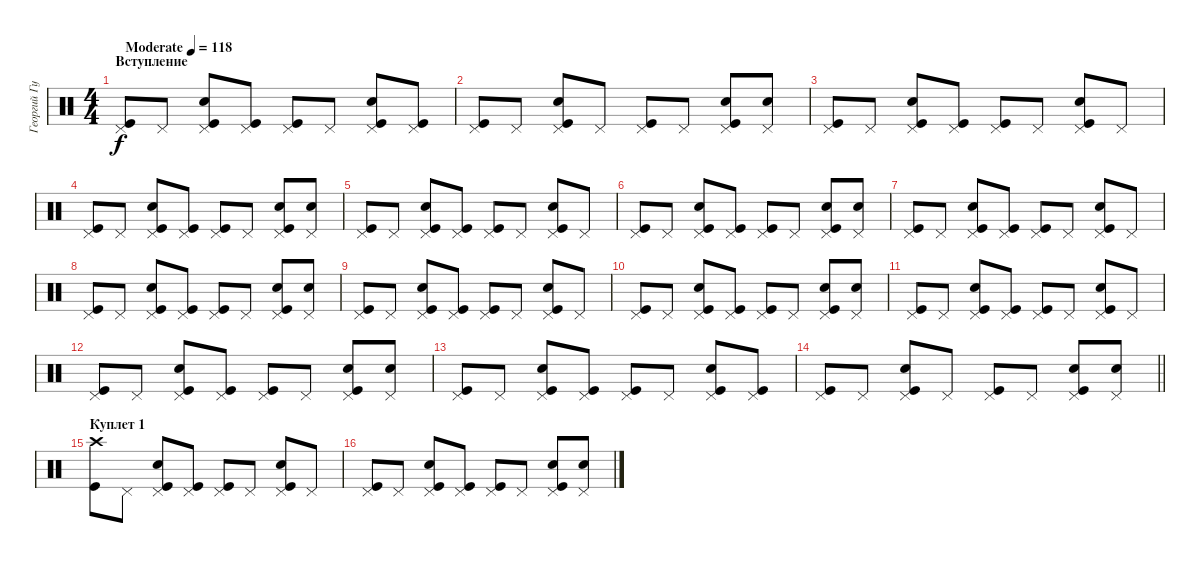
\track ("Георгий Гурьянов" "Георгий Гу") {instrument percussion}
\staff {score}
\articulation defaults
\ts (4 4)
\section ("" "Вступление")
\tempo (118 "Moderate")
\clef neutral
\ks c
("Pedal Hi-Hat (hit)" "Kick (hit)").8{dy f} "Pedal Hi-Hat (hit)".8 ("Pedal Hi-Hat (hit)" "Kick (hit)" "Snare (hit) 2").8 ("Pedal Hi-Hat (hit)" "Kick (hit)").8 ("Pedal Hi-Hat (hit)" "Kick (hit)").8 "Pedal Hi-Hat (hit)".8 ("Pedal Hi-Hat (hit)" "Kick (hit)" "Snare (hit) 2").8 ("Pedal Hi-Hat (hit)" "Kick (hit)").8 |
("Pedal Hi-Hat (hit)" "Kick (hit)").8 "Pedal Hi-Hat (hit)".8 ("Pedal Hi-Hat (hit)" "Kick (hit)" "Snare (hit) 2").8 "Pedal Hi-Hat (hit)".8 ("Pedal Hi-Hat (hit)" "Kick (hit)").8 "Pedal Hi-Hat (hit)".8 ("Pedal Hi-Hat (hit)" "Kick (hit)" "Snare (hit) 2").8 ("Pedal Hi-Hat (hit)" "Snare (hit) 2").8 |
("Pedal Hi-Hat (hit)" "Kick (hit)").8 "Pedal Hi-Hat (hit)".8 ("Pedal Hi-Hat (hit)" "Kick (hit)" "Snare (hit) 2").8 ("Pedal Hi-Hat (hit)" "Kick (hit)").8 ("Pedal Hi-Hat (hit)" "Kick (hit)").8 "Pedal Hi-Hat (hit)".8 ("Pedal Hi-Hat (hit)" "Kick (hit)" "Snare (hit) 2").8 "Pedal Hi-Hat (hit)".8 |
("Pedal Hi-Hat (hit)" "Kick (hit)").8 "Pedal Hi-Hat (hit)".8 ("Pedal Hi-Hat (hit)" "Kick (hit)" "Snare (hit) 2").8 ("Pedal Hi-Hat (hit)" "Kick (hit)").8 ("Pedal Hi-Hat (hit)" "Kick (hit)").8 "Pedal Hi-Hat (hit)".8 ("Pedal Hi-Hat (hit)" "Kick (hit)" "Snare (hit) 2").8 ("Pedal Hi-Hat (hit)" "Snare (hit) 2").8 |
("Pedal Hi-Hat (hit)" "Kick (hit)").8 "Pedal Hi-Hat (hit)".8 ("Pedal Hi-Hat (hit)" "Kick (hit)" "Snare (hit) 2").8 ("Pedal Hi-Hat (hit)" "Kick (hit)").8 ("Pedal Hi-Hat (hit)" "Kick (hit)").8 "Pedal Hi-Hat (hit)".8 ("Pedal Hi-Hat (hit)" "Kick (hit)" "Snare (hit) 2").8 "Pedal Hi-Hat (hit)".8 |
("Pedal Hi-Hat (hit)" "Kick (hit)").8 "Pedal Hi-Hat (hit)".8 ("Pedal Hi-Hat (hit)" "Kick (hit)" "Snare (hit) 2").8 ("Pedal Hi-Hat (hit)" "Kick (hit)").8 ("Pedal Hi-Hat (hit)" "Kick (hit)").8 "Pedal Hi-Hat (hit)".8 ("Pedal Hi-Hat (hit)" "Kick (hit)" "Snare (hit) 2").8 ("Pedal Hi-Hat (hit)" "Snare (hit) 2").8 |
("Pedal Hi-Hat (hit)" "Kick (hit)").8 "Pedal Hi-Hat (hit)".8 ("Pedal Hi-Hat (hit)" "Kick (hit)" "Snare (hit) 2").8 ("Pedal Hi-Hat (hit)" "Kick (hit)").8 ("Pedal Hi-Hat (hit)" "Kick (hit)").8 "Pedal Hi-Hat (hit)".8 ("Pedal Hi-Hat (hit)" "Kick (hit)" "Snare (hit) 2").8 "Pedal Hi-Hat (hit)".8 |
("Pedal Hi-Hat (hit)" "Kick (hit)").8 "Pedal Hi-Hat (hit)".8 ("Pedal Hi-Hat (hit)" "Kick (hit)" "Snare (hit) 2").8 ("Pedal Hi-Hat (hit)" "Kick (hit)").8 ("Pedal Hi-Hat (hit)" "Kick (hit)").8 "Pedal Hi-Hat (hit)".8 ("Pedal Hi-Hat (hit)" "Kick (hit)" "Snare (hit) 2").8 ("Pedal Hi-Hat (hit)" "Snare (hit) 2").8 |
("Pedal Hi-Hat (hit)" "Kick (hit)").8 "Pedal Hi-Hat (hit)".8 ("Pedal Hi-Hat (hit)" "Kick (hit)" "Snare (hit) 2").8 ("Pedal Hi-Hat (hit)" "Kick (hit)").8 ("Pedal Hi-Hat (hit)" "Kick (hit)").8 "Pedal Hi-Hat (hit)".8 ("Pedal Hi-Hat (hit)" "Kick (hit)" "Snare (hit) 2").8 "Pedal Hi-Hat (hit)".8 |
("Pedal Hi-Hat (hit)" "Kick (hit)").8 "Pedal Hi-Hat (hit)".8 ("Pedal Hi-Hat (hit)" "Kick (hit)" "Snare (hit) 2").8 ("Pedal Hi-Hat (hit)" "Kick (hit)").8 ("Pedal Hi-Hat (hit)" "Kick (hit)").8 "Pedal Hi-Hat (hit)".8 ("Pedal Hi-Hat (hit)" "Kick (hit)" "Snare (hit) 2").8 ("Pedal Hi-Hat (hit)" "Snare (hit) 2").8 |
("Pedal Hi-Hat (hit)" "Kick (hit)").8 "Pedal Hi-Hat (hit)".8 ("Pedal Hi-Hat (hit)" "Kick (hit)" "Snare (hit) 2").8 ("Pedal Hi-Hat (hit)" "Kick (hit)").8 ("Pedal Hi-Hat (hit)" "Kick (hit)").8 "Pedal Hi-Hat (hit)".8 ("Pedal Hi-Hat (hit)" "Kick (hit)" "Snare (hit) 2").8 "Pedal Hi-Hat (hit)".8 |
("Pedal Hi-Hat (hit)" "Kick (hit)").8 "Pedal Hi-Hat (hit)".8 ("Pedal Hi-Hat (hit)" "Kick (hit)" "Snare (hit) 2").8 ("Pedal Hi-Hat (hit)" "Kick (hit)").8 ("Pedal Hi-Hat (hit)" "Kick (hit)").8 "Pedal Hi-Hat (hit)".8 ("Pedal Hi-Hat (hit)" "Kick (hit)" "Snare (hit) 2").8 ("Pedal Hi-Hat (hit)" "Snare (hit) 2").8 |
("Pedal Hi-Hat (hit)" "Kick (hit)").8 "Pedal Hi-Hat (hit)".8 ("Pedal Hi-Hat (hit)" "Kick (hit)" "Snare (hit) 2").8 ("Pedal Hi-Hat (hit)" "Kick (hit)").8 ("Pedal Hi-Hat (hit)" "Kick (hit)").8 "Pedal Hi-Hat (hit)".8 ("Pedal Hi-Hat (hit)" "Kick (hit)" "Snare (hit) 2").8 ("Pedal Hi-Hat (hit)" "Kick (hit)").8 |
\barLineRight lightlight
("Pedal Hi-Hat (hit)" "Kick (hit)").8 "Pedal Hi-Hat (hit)".8 ("Pedal Hi-Hat (hit)" "Kick (hit)" "Snare (hit) 2").8 "Pedal Hi-Hat (hit)".8 ("Pedal Hi-Hat (hit)" "Kick (hit)").8 "Pedal Hi-Hat (hit)".8 ("Pedal Hi-Hat (hit)" "Kick (hit)" "Snare (hit) 2").8 ("Pedal Hi-Hat (hit)" "Snare (hit) 2").8 |
\section ("" "Куплет 1")
("Crash high (hit)" "Kick (hit)").8 "Pedal Hi-Hat (hit)".8 ("Pedal Hi-Hat (hit)" "Kick (hit)" "Snare (hit) 2").8 ("Pedal Hi-Hat (hit)" "Kick (hit)").8 ("Pedal Hi-Hat (hit)" "Kick (hit)").8 "Pedal Hi-Hat (hit)".8 ("Pedal Hi-Hat (hit)" "Kick (hit)" "Snare (hit) 2").8 "Pedal Hi-Hat (hit)".8 |
("Pedal Hi-Hat (hit)" "Kick (hit)").8 "Pedal Hi-Hat (hit)".8 ("Pedal Hi-Hat (hit)" "Kick (hit)" "Snare (hit) 2").8 ("Pedal Hi-Hat (hit)" "Kick (hit)").8 ("Pedal Hi-Hat (hit)" "Kick (hit)").8 "Pedal Hi-Hat (hit)".8 ("Pedal Hi-Hat (hit)" "Kick (hit)" "Snare (hit) 2").8 ("Pedal Hi-Hat (hit)" "Snare (hit) 2").8
